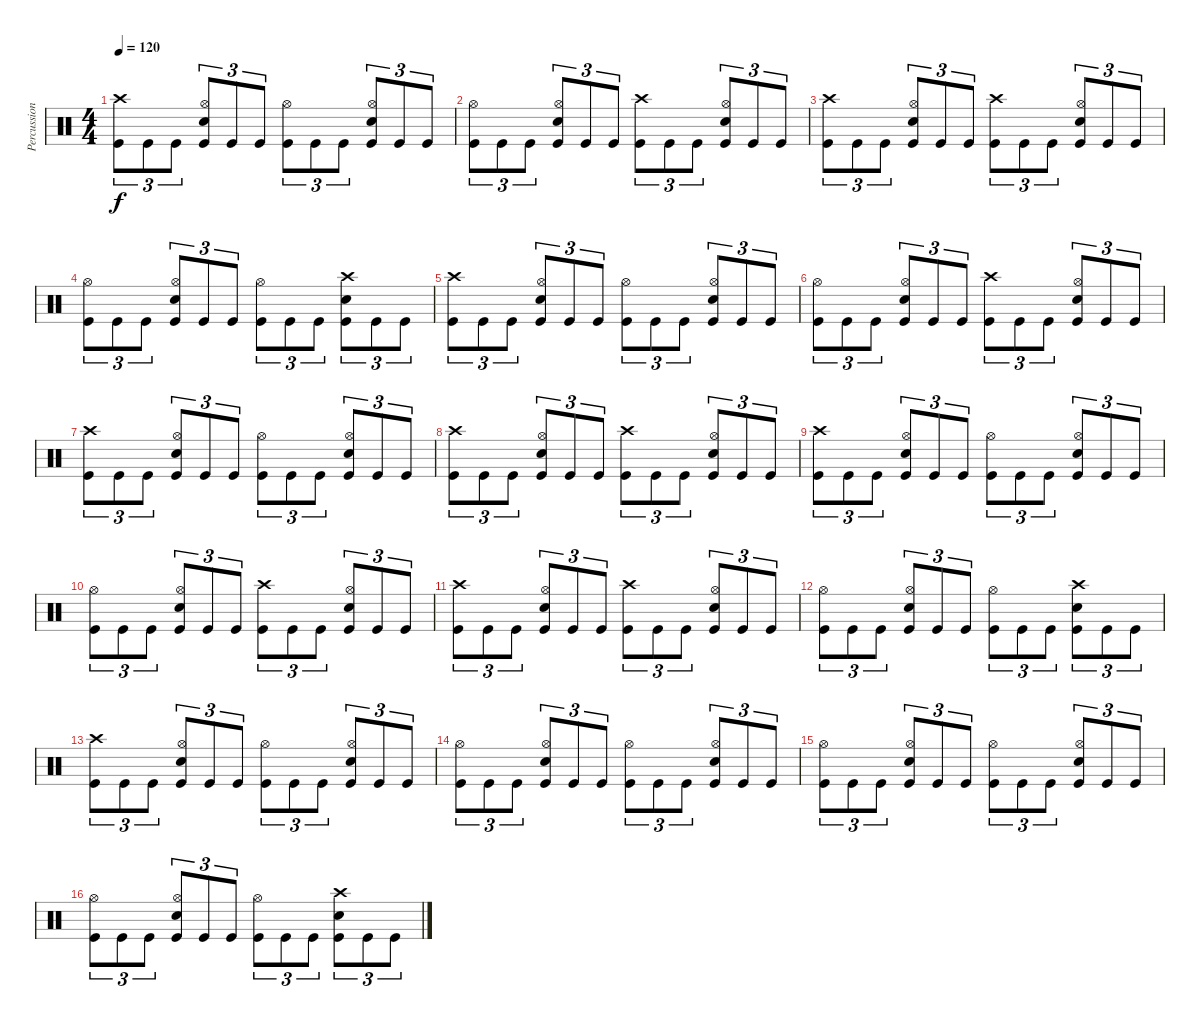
\track ("Percussion" "Percussion") {instrument percussion}
\staff {score}
\articulation defaults
\ts (4 4)
\tempo 120
\clef neutral
\ks c
("Crash high (hit)" "Kick (hit)").8{tu (3 2) dy f} "Kick (hit)".8{tu (3 2)} "Kick (hit)".8{tu (3 2)} ("Hi-Hat (open)" "Snare (hit) 2" "Kick (hit)").8{tu (3 2)} "Kick (hit)".8{tu (3 2)} "Kick (hit)".8{tu (3 2)} ("Hi-Hat (open)" "Kick (hit)").8{tu (3 2)} "Kick (hit)".8{tu (3 2)} "Kick (hit)".8{tu (3 2)} ("Hi-Hat (open)" "Snare (hit) 2" "Kick (hit)").8{tu (3 2)} "Kick (hit)".8{tu (3 2)} "Kick (hit)".8{tu (3 2)} |
("Hi-Hat (open)" "Kick (hit)").8{tu (3 2)} "Kick (hit)".8{tu (3 2)} "Kick (hit)".8{tu (3 2)} ("Hi-Hat (open)" "Snare (hit) 2" "Kick (hit)").8{tu (3 2)} "Kick (hit)".8{tu (3 2)} "Kick (hit)".8{tu (3 2)} ("Crash high (hit)" "Kick (hit)").8{tu (3 2)} "Kick (hit)".8{tu (3 2)} "Kick (hit)".8{tu (3 2)} ("Hi-Hat (open)" "Snare (hit) 2" "Kick (hit)").8{tu (3 2)} "Kick (hit)".8{tu (3 2)} "Kick (hit)".8{tu (3 2)} |
("Crash high (hit)" "Kick (hit)").8{tu (3 2)} "Kick (hit)".8{tu (3 2)} "Kick (hit)".8{tu (3 2)} ("Hi-Hat (open)" "Snare (hit) 2" "Kick (hit)").8{tu (3 2)} "Kick (hit)".8{tu (3 2)} "Kick (hit)".8{tu (3 2)} ("Crash high (hit)" "Kick (hit)").8{tu (3 2)} "Kick (hit)".8{tu (3 2)} "Kick (hit)".8{tu (3 2)} ("Hi-Hat (open)" "Snare (hit) 2" "Kick (hit)").8{tu (3 2)} "Kick (hit)".8{tu (3 2)} "Kick (hit)".8{tu (3 2)} |
("Hi-Hat (open)" "Kick (hit)").8{tu (3 2)} "Kick (hit)".8{tu (3 2)} "Kick (hit)".8{tu (3 2)} ("Hi-Hat (open)" "Snare (hit) 2" "Kick (hit)").8{tu (3 2)} "Kick (hit)".8{tu (3 2)} "Kick (hit)".8{tu (3 2)} ("Hi-Hat (open)" "Kick (hit)").8{tu (3 2)} "Kick (hit)".8{tu (3 2)} "Kick (hit)".8{tu (3 2)} ("Crash high (hit)" "Snare (hit) 2" "Kick (hit)").8{tu (3 2)} "Kick (hit)".8{tu (3 2)} "Kick (hit)".8{tu (3 2)} |
("Crash high (hit)" "Kick (hit)").8{tu (3 2)} "Kick (hit)".8{tu (3 2)} "Kick (hit)".8{tu (3 2)} ("Hi-Hat (open)" "Snare (hit) 2" "Kick (hit)").8{tu (3 2)} "Kick (hit)".8{tu (3 2)} "Kick (hit)".8{tu (3 2)} ("Hi-Hat (open)" "Kick (hit)").8{tu (3 2)} "Kick (hit)".8{tu (3 2)} "Kick (hit)".8{tu (3 2)} ("Hi-Hat (open)" "Snare (hit) 2" "Kick (hit)").8{tu (3 2)} "Kick (hit)".8{tu (3 2)} "Kick (hit)".8{tu (3 2)} |
("Hi-Hat (open)" "Kick (hit)").8{tu (3 2)} "Kick (hit)".8{tu (3 2)} "Kick (hit)".8{tu (3 2)} ("Hi-Hat (open)" "Snare (hit) 2" "Kick (hit)").8{tu (3 2)} "Kick (hit)".8{tu (3 2)} "Kick (hit)".8{tu (3 2)} ("Crash high (hit)" "Kick (hit)").8{tu (3 2)} "Kick (hit)".8{tu (3 2)} "Kick (hit)".8{tu (3 2)} ("Hi-Hat (open)" "Snare (hit) 2" "Kick (hit)").8{tu (3 2)} "Kick (hit)".8{tu (3 2)} "Kick (hit)".8{tu (3 2)} |
("Crash high (hit)" "Kick (hit)").8{tu (3 2)} "Kick (hit)".8{tu (3 2)} "Kick (hit)".8{tu (3 2)} ("Hi-Hat (open)" "Snare (hit) 2" "Kick (hit)").8{tu (3 2)} "Kick (hit)".8{tu (3 2)} "Kick (hit)".8{tu (3 2)} ("Hi-Hat (open)" "Kick (hit)").8{tu (3 2)} "Kick (hit)".8{tu (3 2)} "Kick (hit)".8{tu (3 2)} ("Hi-Hat (open)" "Snare (hit) 2" "Kick (hit)").8{tu (3 2)} "Kick (hit)".8{tu (3 2)} "Kick (hit)".8{tu (3 2)} |
("Crash high (hit)" "Kick (hit)").8{tu (3 2)} "Kick (hit)".8{tu (3 2)} "Kick (hit)".8{tu (3 2)} ("Hi-Hat (open)" "Snare (hit) 2" "Kick (hit)").8{tu (3 2)} "Kick (hit)".8{tu (3 2)} "Kick (hit)".8{tu (3 2)} ("Crash high (hit)" "Kick (hit)").8{tu (3 2)} "Kick (hit)".8{tu (3 2)} "Kick (hit)".8{tu (3 2)} ("Hi-Hat (open)" "Snare (hit) 2" "Kick (hit)").8{tu (3 2)} "Kick (hit)".8{tu (3 2)} "Kick (hit)".8{tu (3 2)} |
("Crash high (hit)" "Kick (hit)").8{tu (3 2)} "Kick (hit)".8{tu (3 2)} "Kick (hit)".8{tu (3 2)} ("Hi-Hat (open)" "Snare (hit) 2" "Kick (hit)").8{tu (3 2)} "Kick (hit)".8{tu (3 2)} "Kick (hit)".8{tu (3 2)} ("Hi-Hat (open)" "Kick (hit)").8{tu (3 2)} "Kick (hit)".8{tu (3 2)} "Kick (hit)".8{tu (3 2)} ("Hi-Hat (open)" "Snare (hit) 2" "Kick (hit)").8{tu (3 2)} "Kick (hit)".8{tu (3 2)} "Kick (hit)".8{tu (3 2)} |
("Hi-Hat (open)" "Kick (hit)").8{tu (3 2)} "Kick (hit)".8{tu (3 2)} "Kick (hit)".8{tu (3 2)} ("Hi-Hat (open)" "Snare (hit) 2" "Kick (hit)").8{tu (3 2)} "Kick (hit)".8{tu (3 2)} "Kick (hit)".8{tu (3 2)} ("Crash high (hit)" "Kick (hit)").8{tu (3 2)} "Kick (hit)".8{tu (3 2)} "Kick (hit)".8{tu (3 2)} ("Hi-Hat (open)" "Snare (hit) 2" "Kick (hit)").8{tu (3 2)} "Kick (hit)".8{tu (3 2)} "Kick (hit)".8{tu (3 2)} |
("Crash high (hit)" "Kick (hit)").8{tu (3 2)} "Kick (hit)".8{tu (3 2)} "Kick (hit)".8{tu (3 2)} ("Hi-Hat (open)" "Snare (hit) 2" "Kick (hit)").8{tu (3 2)} "Kick (hit)".8{tu (3 2)} "Kick (hit)".8{tu (3 2)} ("Crash high (hit)" "Kick (hit)").8{tu (3 2)} "Kick (hit)".8{tu (3 2)} "Kick (hit)".8{tu (3 2)} ("Hi-Hat (open)" "Snare (hit) 2" "Kick (hit)").8{tu (3 2)} "Kick (hit)".8{tu (3 2)} "Kick (hit)".8{tu (3 2)} |
("Hi-Hat (open)" "Kick (hit)").8{tu (3 2)} "Kick (hit)".8{tu (3 2)} "Kick (hit)".8{tu (3 2)} ("Hi-Hat (open)" "Snare (hit) 2" "Kick (hit)").8{tu (3 2)} "Kick (hit)".8{tu (3 2)} "Kick (hit)".8{tu (3 2)} ("Hi-Hat (open)" "Kick (hit)").8{tu (3 2)} "Kick (hit)".8{tu (3 2)} "Kick (hit)".8{tu (3 2)} ("Crash high (hit)" "Snare (hit) 2" "Kick (hit)").8{tu (3 2)} "Kick (hit)".8{tu (3 2)} "Kick (hit)".8{tu (3 2)} |
("Crash high (hit)" "Kick (hit)").8{tu (3 2)} "Kick (hit)".8{tu (3 2)} "Kick (hit)".8{tu (3 2)} ("Hi-Hat (open)" "Snare (hit) 2" "Kick (hit)").8{tu (3 2)} "Kick (hit)".8{tu (3 2)} "Kick (hit)".8{tu (3 2)} ("Hi-Hat (open)" "Kick (hit)").8{tu (3 2)} "Kick (hit)".8{tu (3 2)} "Kick (hit)".8{tu (3 2)} ("Hi-Hat (open)" "Snare (hit) 2" "Kick (hit)").8{tu (3 2)} "Kick (hit)".8{tu (3 2)} "Kick (hit)".8{tu (3 2)} |
("Hi-Hat (open)" "Kick (hit)").8{tu (3 2)} "Kick (hit)".8{tu (3 2)} "Kick (hit)".8{tu (3 2)} ("Hi-Hat (open)" "Snare (hit) 2" "Kick (hit)").8{tu (3 2)} "Kick (hit)".8{tu (3 2)} "Kick (hit)".8{tu (3 2)} ("Hi-Hat (open)" "Kick (hit)").8{tu (3 2)} "Kick (hit)".8{tu (3 2)} "Kick (hit)".8{tu (3 2)} ("Hi-Hat (open)" "Snare (hit) 2" "Kick (hit)").8{tu (3 2)} "Kick (hit)".8{tu (3 2)} "Kick (hit)".8{tu (3 2)} |
("Hi-Hat (open)" "Kick (hit)").8{tu (3 2)} "Kick (hit)".8{tu (3 2)} "Kick (hit)".8{tu (3 2)} ("Hi-Hat (open)" "Snare (hit) 2" "Kick (hit)").8{tu (3 2)} "Kick (hit)".8{tu (3 2)} "Kick (hit)".8{tu (3 2)} ("Hi-Hat (open)" "Kick (hit)").8{tu (3 2)} "Kick (hit)".8{tu (3 2)} "Kick (hit)".8{tu (3 2)} ("Hi-Hat (open)" "Snare (hit) 2" "Kick (hit)").8{tu (3 2)} "Kick (hit)".8{tu (3 2)} "Kick (hit)".8{tu (3 2)} |
("Hi-Hat (open)" "Kick (hit)").8{tu (3 2)} "Kick (hit)".8{tu (3 2)} "Kick (hit)".8{tu (3 2)} ("Hi-Hat (open)" "Snare (hit) 2" "Kick (hit)").8{tu (3 2)} "Kick (hit)".8{tu (3 2)} "Kick (hit)".8{tu (3 2)} ("Hi-Hat (open)" "Kick (hit)").8{tu (3 2)} "Kick (hit)".8{tu (3 2)} "Kick (hit)".8{tu (3 2)} ("Crash high (hit)" "Snare (hit) 2" "Kick (hit)").8{tu (3 2)} "Kick (hit)".8{tu (3 2)} "Kick (hit)".8{tu (3 2)}
